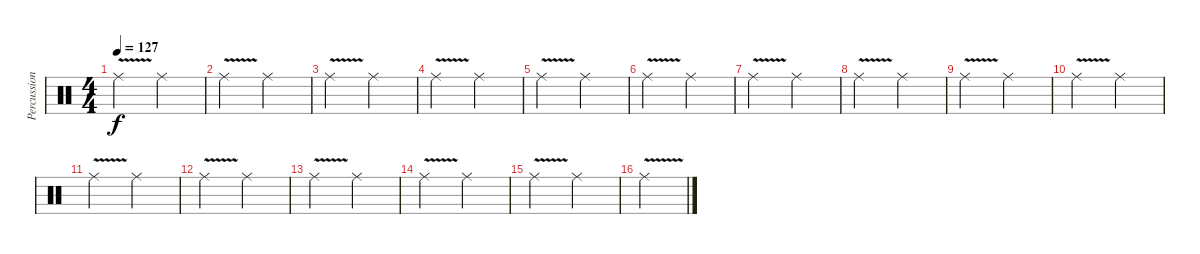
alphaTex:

\track ("Percussion" "Percussion") {instrument percussion}
\staff {score}
\articulation defaults
\ts (4 4)
\tempo 127
\clef neutral
\ks c "Ride (middle)"{v}.2{dy f} "Ride (middle)".2
|
"Ride (middle)"{v}.2 "Ride (middle)".2 |
"Ride (middle)"{v}.2 "Ride (middle)".2 |
"Ride (middle)"{v}.2 "Ride (middle)".2 |
"Ride (middle)"{v}.2 "Ride (middle)".2 |
"Ride (middle)"{v}.2 "Ride (middle)".2 |
"Ride (middle)"{v}.2 "Ride (middle)".2 |
"Ride (middle)"{v}.2 "Ride (middle)".2 |
"Ride (middle)"{v}.2 "Ride (middle)".2 |
"Ride (middle)"{v}.2 "Ride (middle)".2 |
"Ride (middle)"{v}.2 "Ride (middle)".2 |
"Ride (middle)"{v}.2 "Ride (middle)".2 |
"Ride (middle)"{v}.2 "Ride (middle)".2 |
"Ride (middle)"{v}.2 "Ride (middle)".2 |
"Ride (middle)"{v}.2 "Ride (middle)".2 |
"Ride (middle)"{v}.2
